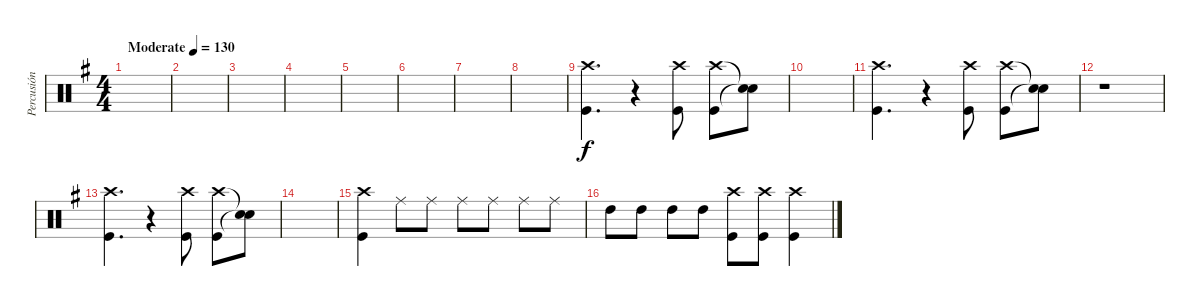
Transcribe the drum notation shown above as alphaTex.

\track ("Percusión" "Percusión") {instrument percussion}
\staff {score}
\articulation defaults
\ts (4 4)
\tempo (130 "Moderate")
\clef neutral
\ks g
|
|
|
|
|
|
|
|
("Kick (hit)" "Crash high (hit)").4{d} r.4 ("Kick (hit)" "Crash high (hit)").8 ("Kick (hit)" "Crash high (hit)").8 ("Snare (hit)"{t} "Snare (hit)"{t}).8 |
|
("Kick (hit)" "Crash high (hit)").4{d} r.4 ("Kick (hit)" "Crash high (hit)").8 ("Kick (hit)" "Crash high (hit)").8 ("Snare (hit)"{t} "Snare (hit)"{t}).8 |
r.1 |
("Kick (hit)" "Crash high (hit)").4{d} r.4 ("Kick (hit)" "Crash high (hit)").8 ("Kick (hit)" "Crash high (hit)").8 ("Snare (hit)"{t} "Snare (hit)"{t}).8 |
|
("Crash high (hit)" "Kick (hit)").4 "Ride (middle)".8 "Ride (middle)".8 "Ride (middle)".8 "Ride (middle)".8 "Ride (middle)".8 "Ride (middle)".8 |
"High Tom (hit)".8 "High Tom (hit)".8 "High Tom (hit)".8 "High Tom (hit)".8 ("Crash high (hit)" "Kick (hit)").8 ("Crash high (hit)" "Kick (hit)").8 ("Crash high (hit)" "Kick (hit)").4
